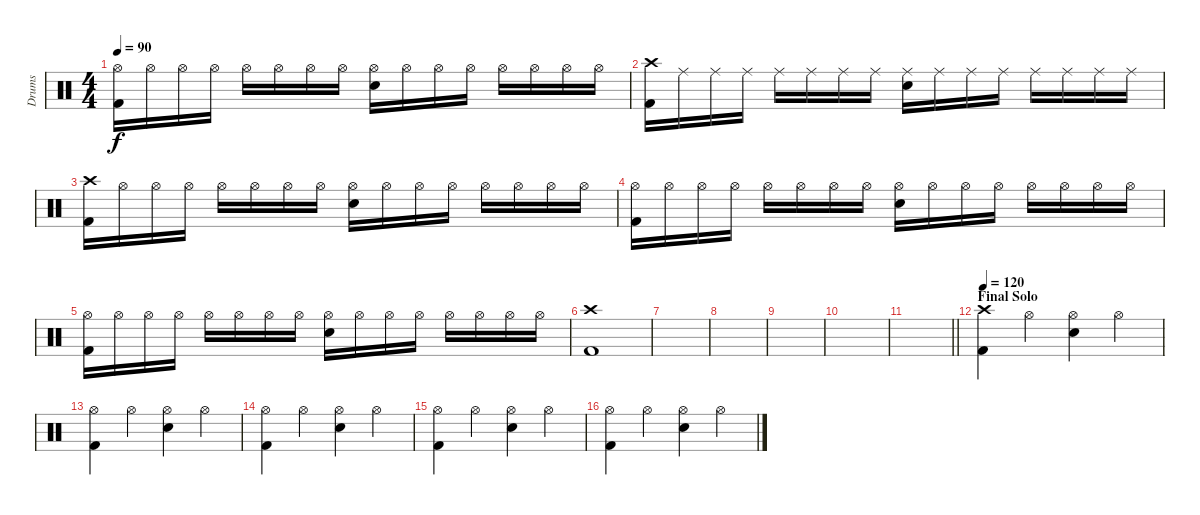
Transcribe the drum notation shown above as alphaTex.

\track ("Drums" "Drums") {instrument percussion}
\staff {score}
\articulation defaults
\ts (4 4)
\tempo 90
\clef neutral
\ks c
("Hi-Hat (open)" "Kick (hit) 2").16{dy f} "Hi-Hat (open)".16 "Hi-Hat (open)".16 "Hi-Hat (open)".16 "Hi-Hat (open)".16 "Hi-Hat (open)".16 "Hi-Hat (open)".16 "Hi-Hat (open)".16 ("Hi-Hat (open)" "Snare (hit) 2").16 "Hi-Hat (open)".16 "Hi-Hat (open)".16 "Hi-Hat (open)".16 "Hi-Hat (open)".16 "Hi-Hat (open)".16 "Hi-Hat (open)".16 "Hi-Hat (open)".16 |
("Crash high (hit)" "Kick (hit) 2").16 "Ride (middle)".16 "Ride (middle)".16 "Ride (middle)".16 "Ride (middle)".16 "Ride (middle)".16 "Ride (middle)".16 "Ride (middle)".16 ("Ride (middle)" "Snare (hit) 2").16 "Ride (middle)".16 "Ride (middle)".16 "Ride (middle)".16 "Ride (middle)".16 "Ride (middle)".16 "Ride (middle)".16 "Ride (middle)".16 |
("Crash high (hit)" "Kick (hit) 2").16 "Hi-Hat (open)".16 "Hi-Hat (open)".16 "Hi-Hat (open)".16 "Hi-Hat (open)".16 "Hi-Hat (open)".16 "Hi-Hat (open)".16 "Hi-Hat (open)".16 ("Hi-Hat (open)" "Snare (hit) 2").16 "Hi-Hat (open)".16 "Hi-Hat (open)".16 "Hi-Hat (open)".16 "Hi-Hat (open)".16 "Hi-Hat (open)".16 "Hi-Hat (open)".16 "Hi-Hat (open)".16 |
("Hi-Hat (open)" "Kick (hit) 2").16 "Hi-Hat (open)".16 "Hi-Hat (open)".16 "Hi-Hat (open)".16 "Hi-Hat (open)".16 "Hi-Hat (open)".16 "Hi-Hat (open)".16 "Hi-Hat (open)".16 ("Hi-Hat (open)" "Snare (hit) 2").16 "Hi-Hat (open)".16 "Hi-Hat (open)".16 "Hi-Hat (open)".16 "Hi-Hat (open)".16 "Hi-Hat (open)".16 "Hi-Hat (open)".16 "Hi-Hat (open)".16 |
("Hi-Hat (open)" "Kick (hit) 2").16 "Hi-Hat (open)".16 "Hi-Hat (open)".16 "Hi-Hat (open)".16 "Hi-Hat (open)".16 "Hi-Hat (open)".16 "Hi-Hat (open)".16 "Hi-Hat (open)".16 ("Hi-Hat (open)" "Snare (hit) 2").16 "Hi-Hat (open)".16 "Hi-Hat (open)".16 "Hi-Hat (open)".16 "Hi-Hat (open)".16 "Hi-Hat (open)".16 "Hi-Hat (open)".16 "Hi-Hat (open)".16 |
("Crash high (hit)" "Kick (hit) 2").1 |
|
|
|
|
\barLineRight lightlight
|
\section ("" "Final Solo")
\tempo 120
("Crash high (hit)" "Kick (hit) 2").4{volume 13} "Hi-Hat (open)".4 ("Hi-Hat (open)" "Snare (hit) 2").4 "Hi-Hat (open)".4 |
("Hi-Hat (open)" "Kick (hit) 2").4 "Hi-Hat (open)".4 ("Hi-Hat (open)" "Snare (hit) 2").4 "Hi-Hat (open)".4 |
("Hi-Hat (open)" "Kick (hit) 2").4 "Hi-Hat (open)".4 ("Hi-Hat (open)" "Snare (hit) 2").4 "Hi-Hat (open)".4 |
("Hi-Hat (open)" "Kick (hit) 2").4 "Hi-Hat (open)".4 ("Hi-Hat (open)" "Snare (hit) 2").4 "Hi-Hat (open)".4 |
("Hi-Hat (open)" "Kick (hit) 2").4 "Hi-Hat (open)".4 ("Hi-Hat (open)" "Snare (hit) 2").4 "Hi-Hat (open)".4
